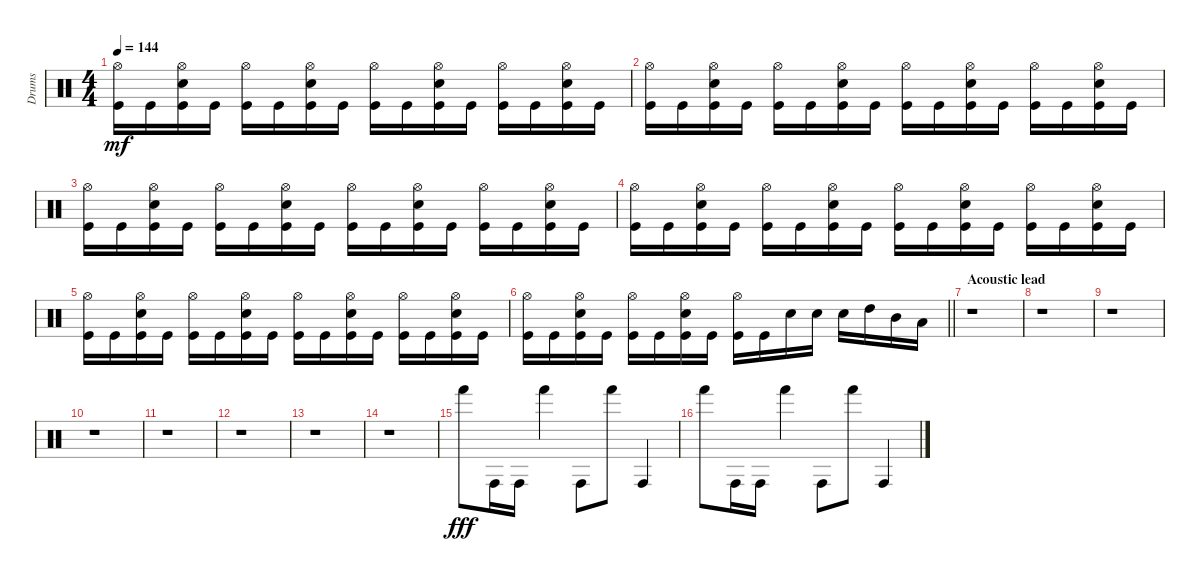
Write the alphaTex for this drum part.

\track ("Drums" "Drums") {instrument percussion}
\staff {score}
\articulation defaults
\ts (4 4)
\tempo 144
\clef neutral
\ks c
("Hi-Hat (open)" "Kick (hit)").16{dy mf} "Kick (hit)".16 ("Hi-Hat (open)" "Snare (hit) 2" "Kick (hit)").16 "Kick (hit)".16 ("Hi-Hat (open)" "Kick (hit)").16 "Kick (hit)".16 ("Hi-Hat (open)" "Snare (hit) 2" "Kick (hit)").16 "Kick (hit)".16 ("Hi-Hat (open)" "Kick (hit)").16 "Kick (hit)".16 ("Hi-Hat (open)" "Snare (hit) 2" "Kick (hit)").16 "Kick (hit)".16 ("Hi-Hat (open)" "Kick (hit)").16 "Kick (hit)".16 ("Hi-Hat (open)" "Snare (hit) 2" "Kick (hit)").16 "Kick (hit)".16 |
("Hi-Hat (open)" "Kick (hit)").16 "Kick (hit)".16 ("Hi-Hat (open)" "Snare (hit) 2" "Kick (hit)").16 "Kick (hit)".16 ("Hi-Hat (open)" "Kick (hit)").16 "Kick (hit)".16 ("Hi-Hat (open)" "Snare (hit) 2" "Kick (hit)").16 "Kick (hit)".16 ("Hi-Hat (open)" "Kick (hit)").16 "Kick (hit)".16 ("Hi-Hat (open)" "Snare (hit) 2" "Kick (hit)").16 "Kick (hit)".16 ("Hi-Hat (open)" "Kick (hit)").16 "Kick (hit)".16 ("Hi-Hat (open)" "Snare (hit) 2" "Kick (hit)").16 "Kick (hit)".16 |
("Hi-Hat (open)" "Kick (hit)").16 "Kick (hit)".16 ("Hi-Hat (open)" "Snare (hit) 2" "Kick (hit)").16 "Kick (hit)".16 ("Hi-Hat (open)" "Kick (hit)").16 "Kick (hit)".16 ("Hi-Hat (open)" "Snare (hit) 2" "Kick (hit)").16 "Kick (hit)".16 ("Hi-Hat (open)" "Kick (hit)").16 "Kick (hit)".16 ("Hi-Hat (open)" "Snare (hit) 2" "Kick (hit)").16 "Kick (hit)".16 ("Hi-Hat (open)" "Kick (hit)").16 "Kick (hit)".16 ("Hi-Hat (open)" "Snare (hit) 2" "Kick (hit)").16 "Kick (hit)".16 |
("Hi-Hat (open)" "Kick (hit)").16 "Kick (hit)".16 ("Hi-Hat (open)" "Snare (hit) 2" "Kick (hit)").16 "Kick (hit)".16 ("Hi-Hat (open)" "Kick (hit)").16 "Kick (hit)".16 ("Hi-Hat (open)" "Snare (hit) 2" "Kick (hit)").16 "Kick (hit)".16 ("Hi-Hat (open)" "Kick (hit)").16 "Kick (hit)".16 ("Hi-Hat (open)" "Snare (hit) 2" "Kick (hit)").16 "Kick (hit)".16 ("Hi-Hat (open)" "Kick (hit)").16 "Kick (hit)".16 ("Hi-Hat (open)" "Snare (hit) 2" "Kick (hit)").16 "Kick (hit)".16 |
("Hi-Hat (open)" "Kick (hit)").16 "Kick (hit)".16 ("Hi-Hat (open)" "Snare (hit) 2" "Kick (hit)").16 "Kick (hit)".16 ("Hi-Hat (open)" "Kick (hit)").16 "Kick (hit)".16 ("Hi-Hat (open)" "Snare (hit) 2" "Kick (hit)").16 "Kick (hit)".16 ("Hi-Hat (open)" "Kick (hit)").16 "Kick (hit)".16 ("Hi-Hat (open)" "Snare (hit) 2" "Kick (hit)").16 "Kick (hit)".16 ("Hi-Hat (open)" "Kick (hit)").16 "Kick (hit)".16 ("Hi-Hat (open)" "Snare (hit) 2" "Kick (hit)").16 "Kick (hit)".16 |
\barLineRight lightlight
("Hi-Hat (open)" "Kick (hit)").16 "Kick (hit)".16 ("Hi-Hat (open)" "Snare (hit) 2" "Kick (hit)").16 "Kick (hit)".16 ("Hi-Hat (open)" "Kick (hit)").16 "Kick (hit)".16 ("Hi-Hat (open)" "Snare (hit) 2" "Kick (hit)").16 "Kick (hit)".16 ("Hi-Hat (open)" "Kick (hit)").16 "Kick (hit)".16 "Snare (hit) 2".16 "Snare (hit) 2".16 "Snare (hit) 2".16 "High Tom (hit)".16 "Mid Tom (hit)".16 "Low Tom (hit)".16 |
\section ("" "Acoustic lead")
r.1 |
r.1 |
r.1 |
r.1 |
r.1 |
r.1 |
r.1 |
r.1 |
"Hand (hit)".8{dy fff} "Conga high (hit)".16 "Conga high (hit)".16 "Hand (hit)".4 "Conga high (hit)".8 "Hand (hit)".8 "Conga high (hit)".4 |
"Hand (hit)".8 "Conga high (hit)".16 "Conga high (hit)".16 "Hand (hit)".4 "Conga high (hit)".8 "Hand (hit)".8 "Conga high (hit)".4
